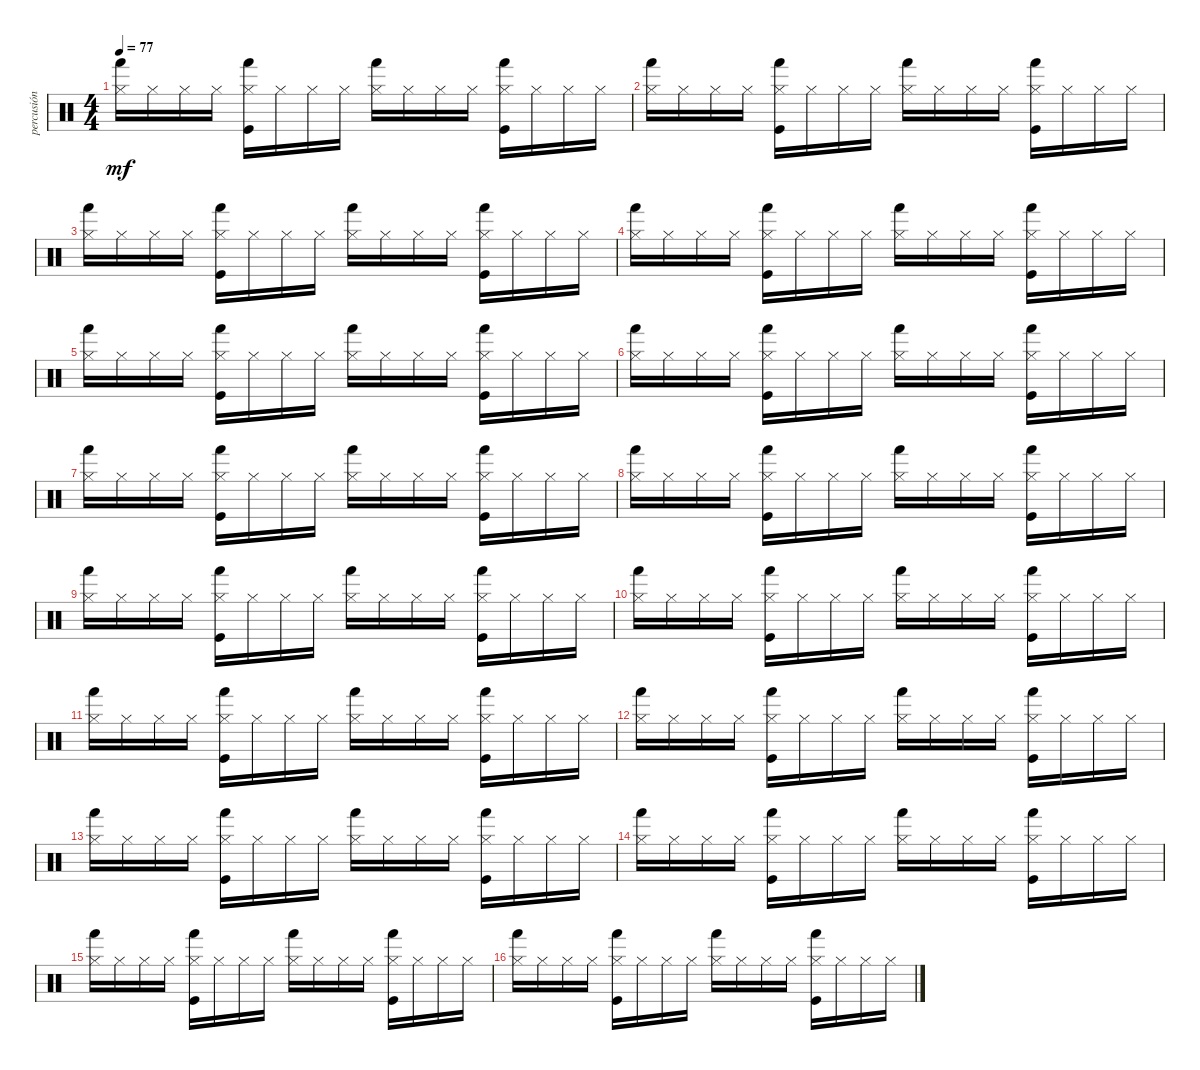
\track ("percusión" "percusión") {instrument percussion}
\staff {score}
\articulation defaults
\ts (4 4)
\tempo 77
\clef neutral
\ks c
("Hand (hit)" "Hi-Hat (closed)").16{dy mf} "Hi-Hat (closed)".16 "Hi-Hat (closed)".16 "Hi-Hat (closed)".16 ("Kick (hit)" "Hand (hit)" "Hi-Hat (closed)").16 "Hi-Hat (closed)".16 "Hi-Hat (closed)".16 "Hi-Hat (closed)".16 ("Hand (hit)" "Hi-Hat (closed)").16 "Hi-Hat (closed)".16 "Hi-Hat (closed)".16 "Hi-Hat (closed)".16 ("Kick (hit)" "Hand (hit)" "Hi-Hat (closed)").16 "Hi-Hat (closed)".16 "Hi-Hat (closed)".16 "Hi-Hat (closed)".16 |
("Hand (hit)" "Hi-Hat (closed)").16 "Hi-Hat (closed)".16 "Hi-Hat (closed)".16 "Hi-Hat (closed)".16 ("Kick (hit)" "Hand (hit)" "Hi-Hat (closed)").16 "Hi-Hat (closed)".16 "Hi-Hat (closed)".16 "Hi-Hat (closed)".16 ("Hand (hit)" "Hi-Hat (closed)").16 "Hi-Hat (closed)".16 "Hi-Hat (closed)".16 "Hi-Hat (closed)".16 ("Kick (hit)" "Hand (hit)" "Hi-Hat (closed)").16 "Hi-Hat (closed)".16 "Hi-Hat (closed)".16 "Hi-Hat (closed)".16 |
("Hand (hit)" "Hi-Hat (closed)").16 "Hi-Hat (closed)".16 "Hi-Hat (closed)".16 "Hi-Hat (closed)".16 ("Kick (hit)" "Hand (hit)" "Hi-Hat (closed)").16 "Hi-Hat (closed)".16 "Hi-Hat (closed)".16 "Hi-Hat (closed)".16 ("Hand (hit)" "Hi-Hat (closed)").16 "Hi-Hat (closed)".16 "Hi-Hat (closed)".16 "Hi-Hat (closed)".16 ("Kick (hit)" "Hand (hit)" "Hi-Hat (closed)").16 "Hi-Hat (closed)".16 "Hi-Hat (closed)".16 "Hi-Hat (closed)".16 |
("Hand (hit)" "Hi-Hat (closed)").16 "Hi-Hat (closed)".16 "Hi-Hat (closed)".16 "Hi-Hat (closed)".16 ("Kick (hit)" "Hand (hit)" "Hi-Hat (closed)").16 "Hi-Hat (closed)".16 "Hi-Hat (closed)".16 "Hi-Hat (closed)".16 ("Hand (hit)" "Hi-Hat (closed)").16 "Hi-Hat (closed)".16 "Hi-Hat (closed)".16 "Hi-Hat (closed)".16 ("Kick (hit)" "Hand (hit)" "Hi-Hat (closed)").16 "Hi-Hat (closed)".16 "Hi-Hat (closed)".16 "Hi-Hat (closed)".16 |
("Hand (hit)" "Hi-Hat (closed)").16 "Hi-Hat (closed)".16 "Hi-Hat (closed)".16 "Hi-Hat (closed)".16 ("Kick (hit)" "Hand (hit)" "Hi-Hat (closed)").16 "Hi-Hat (closed)".16 "Hi-Hat (closed)".16 "Hi-Hat (closed)".16 ("Hand (hit)" "Hi-Hat (closed)").16 "Hi-Hat (closed)".16 "Hi-Hat (closed)".16 "Hi-Hat (closed)".16 ("Kick (hit)" "Hand (hit)" "Hi-Hat (closed)").16 "Hi-Hat (closed)".16 "Hi-Hat (closed)".16 "Hi-Hat (closed)".16 |
("Hand (hit)" "Hi-Hat (closed)").16 "Hi-Hat (closed)".16 "Hi-Hat (closed)".16 "Hi-Hat (closed)".16 ("Kick (hit)" "Hand (hit)" "Hi-Hat (closed)").16 "Hi-Hat (closed)".16 "Hi-Hat (closed)".16 "Hi-Hat (closed)".16 ("Hand (hit)" "Hi-Hat (closed)").16 "Hi-Hat (closed)".16 "Hi-Hat (closed)".16 "Hi-Hat (closed)".16 ("Kick (hit)" "Hand (hit)" "Hi-Hat (closed)").16 "Hi-Hat (closed)".16 "Hi-Hat (closed)".16 "Hi-Hat (closed)".16 |
("Hand (hit)" "Hi-Hat (closed)").16 "Hi-Hat (closed)".16 "Hi-Hat (closed)".16 "Hi-Hat (closed)".16 ("Kick (hit)" "Hand (hit)" "Hi-Hat (closed)").16 "Hi-Hat (closed)".16 "Hi-Hat (closed)".16 "Hi-Hat (closed)".16 ("Hand (hit)" "Hi-Hat (closed)").16 "Hi-Hat (closed)".16 "Hi-Hat (closed)".16 "Hi-Hat (closed)".16 ("Kick (hit)" "Hand (hit)" "Hi-Hat (closed)").16 "Hi-Hat (closed)".16 "Hi-Hat (closed)".16 "Hi-Hat (closed)".16 |
("Hand (hit)" "Hi-Hat (closed)").16 "Hi-Hat (closed)".16 "Hi-Hat (closed)".16 "Hi-Hat (closed)".16 ("Kick (hit)" "Hand (hit)" "Hi-Hat (closed)").16 "Hi-Hat (closed)".16 "Hi-Hat (closed)".16 "Hi-Hat (closed)".16 ("Hand (hit)" "Hi-Hat (closed)").16 "Hi-Hat (closed)".16 "Hi-Hat (closed)".16 "Hi-Hat (closed)".16 ("Kick (hit)" "Hand (hit)" "Hi-Hat (closed)").16 "Hi-Hat (closed)".16 "Hi-Hat (closed)".16 "Hi-Hat (closed)".16 |
("Hand (hit)" "Hi-Hat (closed)").16 "Hi-Hat (closed)".16 "Hi-Hat (closed)".16 "Hi-Hat (closed)".16 ("Kick (hit)" "Hand (hit)" "Hi-Hat (closed)").16 "Hi-Hat (closed)".16 "Hi-Hat (closed)".16 "Hi-Hat (closed)".16 ("Hand (hit)" "Hi-Hat (closed)").16 "Hi-Hat (closed)".16 "Hi-Hat (closed)".16 "Hi-Hat (closed)".16 ("Kick (hit)" "Hand (hit)" "Hi-Hat (closed)").16 "Hi-Hat (closed)".16 "Hi-Hat (closed)".16 "Hi-Hat (closed)".16 |
("Hand (hit)" "Hi-Hat (closed)").16 "Hi-Hat (closed)".16 "Hi-Hat (closed)".16 "Hi-Hat (closed)".16 ("Kick (hit)" "Hand (hit)" "Hi-Hat (closed)").16 "Hi-Hat (closed)".16 "Hi-Hat (closed)".16 "Hi-Hat (closed)".16 ("Hand (hit)" "Hi-Hat (closed)").16 "Hi-Hat (closed)".16 "Hi-Hat (closed)".16 "Hi-Hat (closed)".16 ("Kick (hit)" "Hand (hit)" "Hi-Hat (closed)").16 "Hi-Hat (closed)".16 "Hi-Hat (closed)".16 "Hi-Hat (closed)".16 |
("Hand (hit)" "Hi-Hat (closed)").16 "Hi-Hat (closed)".16 "Hi-Hat (closed)".16 "Hi-Hat (closed)".16 ("Kick (hit)" "Hand (hit)" "Hi-Hat (closed)").16 "Hi-Hat (closed)".16 "Hi-Hat (closed)".16 "Hi-Hat (closed)".16 ("Hand (hit)" "Hi-Hat (closed)").16 "Hi-Hat (closed)".16 "Hi-Hat (closed)".16 "Hi-Hat (closed)".16 ("Kick (hit)" "Hand (hit)" "Hi-Hat (closed)").16 "Hi-Hat (closed)".16 "Hi-Hat (closed)".16 "Hi-Hat (closed)".16 |
("Hand (hit)" "Hi-Hat (closed)").16 "Hi-Hat (closed)".16 "Hi-Hat (closed)".16 "Hi-Hat (closed)".16 ("Kick (hit)" "Hand (hit)" "Hi-Hat (closed)").16 "Hi-Hat (closed)".16 "Hi-Hat (closed)".16 "Hi-Hat (closed)".16 ("Hand (hit)" "Hi-Hat (closed)").16 "Hi-Hat (closed)".16 "Hi-Hat (closed)".16 "Hi-Hat (closed)".16 ("Kick (hit)" "Hand (hit)" "Hi-Hat (closed)").16 "Hi-Hat (closed)".16 "Hi-Hat (closed)".16 "Hi-Hat (closed)".16 |
("Hand (hit)" "Hi-Hat (closed)").16 "Hi-Hat (closed)".16 "Hi-Hat (closed)".16 "Hi-Hat (closed)".16 ("Kick (hit)" "Hand (hit)" "Hi-Hat (closed)").16 "Hi-Hat (closed)".16 "Hi-Hat (closed)".16 "Hi-Hat (closed)".16 ("Hand (hit)" "Hi-Hat (closed)").16 "Hi-Hat (closed)".16 "Hi-Hat (closed)".16 "Hi-Hat (closed)".16 ("Kick (hit)" "Hand (hit)" "Hi-Hat (closed)").16 "Hi-Hat (closed)".16 "Hi-Hat (closed)".16 "Hi-Hat (closed)".16 |
("Hand (hit)" "Hi-Hat (closed)").16 "Hi-Hat (closed)".16 "Hi-Hat (closed)".16 "Hi-Hat (closed)".16 ("Kick (hit)" "Hand (hit)" "Hi-Hat (closed)").16 "Hi-Hat (closed)".16 "Hi-Hat (closed)".16 "Hi-Hat (closed)".16 ("Hand (hit)" "Hi-Hat (closed)").16 "Hi-Hat (closed)".16 "Hi-Hat (closed)".16 "Hi-Hat (closed)".16 ("Kick (hit)" "Hand (hit)" "Hi-Hat (closed)").16 "Hi-Hat (closed)".16 "Hi-Hat (closed)".16 "Hi-Hat (closed)".16 |
("Hand (hit)" "Hi-Hat (closed)").16 "Hi-Hat (closed)".16 "Hi-Hat (closed)".16 "Hi-Hat (closed)".16 ("Kick (hit)" "Hand (hit)" "Hi-Hat (closed)").16 "Hi-Hat (closed)".16 "Hi-Hat (closed)".16 "Hi-Hat (closed)".16 ("Hand (hit)" "Hi-Hat (closed)").16 "Hi-Hat (closed)".16 "Hi-Hat (closed)".16 "Hi-Hat (closed)".16 ("Kick (hit)" "Hand (hit)" "Hi-Hat (closed)").16 "Hi-Hat (closed)".16 "Hi-Hat (closed)".16 "Hi-Hat (closed)".16 |
("Hand (hit)" "Hi-Hat (closed)").16 "Hi-Hat (closed)".16 "Hi-Hat (closed)".16 "Hi-Hat (closed)".16 ("Kick (hit)" "Hand (hit)" "Hi-Hat (closed)").16 "Hi-Hat (closed)".16 "Hi-Hat (closed)".16 "Hi-Hat (closed)".16 ("Hand (hit)" "Hi-Hat (closed)").16 "Hi-Hat (closed)".16 "Hi-Hat (closed)".16 "Hi-Hat (closed)".16 ("Kick (hit)" "Hand (hit)" "Hi-Hat (closed)").16 "Hi-Hat (closed)".16 "Hi-Hat (closed)".16 "Hi-Hat (closed)".16
